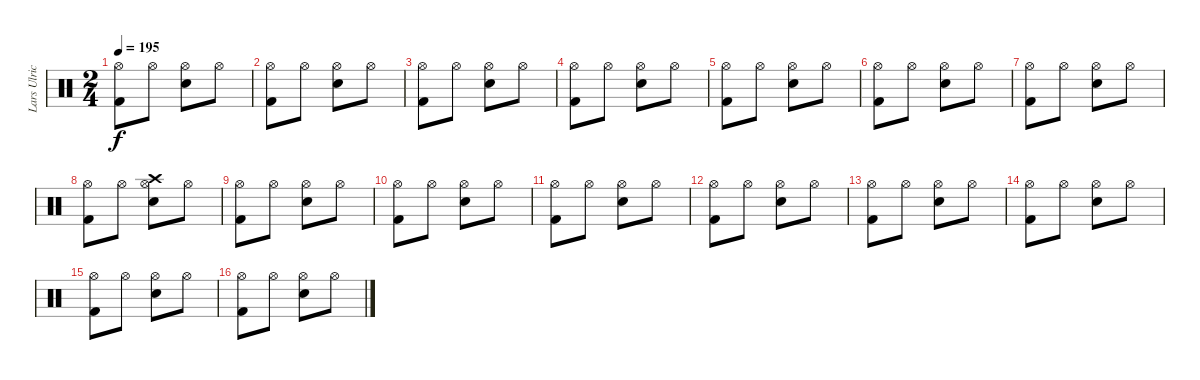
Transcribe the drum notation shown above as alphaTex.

\track ("Lars Ulrich" "Lars Ulric") {instrument percussion}
\staff {score}
\articulation defaults
\ts (2 4)
\tempo 195
\clef neutral
\ks c
("Kick (hit) 2" "Hi-Hat (open)").8{dy f} "Hi-Hat (open)".8 ("Snare (hit) 2" "Hi-Hat (open)").8 "Hi-Hat (open)".8 |
("Kick (hit) 2" "Hi-Hat (open)").8 "Hi-Hat (open)".8 ("Snare (hit) 2" "Hi-Hat (open)").8 "Hi-Hat (open)".8 |
("Kick (hit) 2" "Hi-Hat (open)").8 "Hi-Hat (open)".8 ("Snare (hit) 2" "Hi-Hat (open)").8 "Hi-Hat (open)".8 |
("Kick (hit) 2" "Hi-Hat (open)").8 "Hi-Hat (open)".8 ("Snare (hit) 2" "Hi-Hat (open)").8 "Hi-Hat (open)".8 |
("Kick (hit) 2" "Hi-Hat (open)").8 "Hi-Hat (open)".8 ("Snare (hit) 2" "Hi-Hat (open)").8 "Hi-Hat (open)".8 |
("Kick (hit) 2" "Hi-Hat (open)").8 "Hi-Hat (open)".8 ("Snare (hit) 2" "Hi-Hat (open)").8 "Hi-Hat (open)".8 |
("Kick (hit) 2" "Hi-Hat (open)").8 "Hi-Hat (open)".8 ("Snare (hit) 2" "Hi-Hat (open)").8 "Hi-Hat (open)".8 |
("Kick (hit) 2" "Hi-Hat (open)").8 "Hi-Hat (open)".8 ("Snare (hit) 2" "Hi-Hat (open)" "Crash high (hit)").8 "Hi-Hat (open)".8 |
("Kick (hit) 2" "Hi-Hat (open)").8 "Hi-Hat (open)".8 ("Snare (hit) 2" "Hi-Hat (open)").8 "Hi-Hat (open)".8 |
("Kick (hit) 2" "Hi-Hat (open)").8 "Hi-Hat (open)".8 ("Snare (hit) 2" "Hi-Hat (open)").8 "Hi-Hat (open)".8 |
("Kick (hit) 2" "Hi-Hat (open)").8 "Hi-Hat (open)".8 ("Snare (hit) 2" "Hi-Hat (open)").8 "Hi-Hat (open)".8 |
("Kick (hit) 2" "Hi-Hat (open)").8 "Hi-Hat (open)".8 ("Snare (hit) 2" "Hi-Hat (open)").8 "Hi-Hat (open)".8 |
("Kick (hit) 2" "Hi-Hat (open)").8 "Hi-Hat (open)".8 ("Snare (hit) 2" "Hi-Hat (open)").8 "Hi-Hat (open)".8 |
("Kick (hit) 2" "Hi-Hat (open)").8 "Hi-Hat (open)".8 ("Snare (hit) 2" "Hi-Hat (open)").8 "Hi-Hat (open)".8 |
("Kick (hit) 2" "Hi-Hat (open)").8 "Hi-Hat (open)".8 ("Snare (hit) 2" "Hi-Hat (open)").8 "Hi-Hat (open)".8 |
("Kick (hit) 2" "Hi-Hat (open)").8 "Hi-Hat (open)".8 ("Snare (hit) 2" "Hi-Hat (open)").8 "Hi-Hat (open)".8
